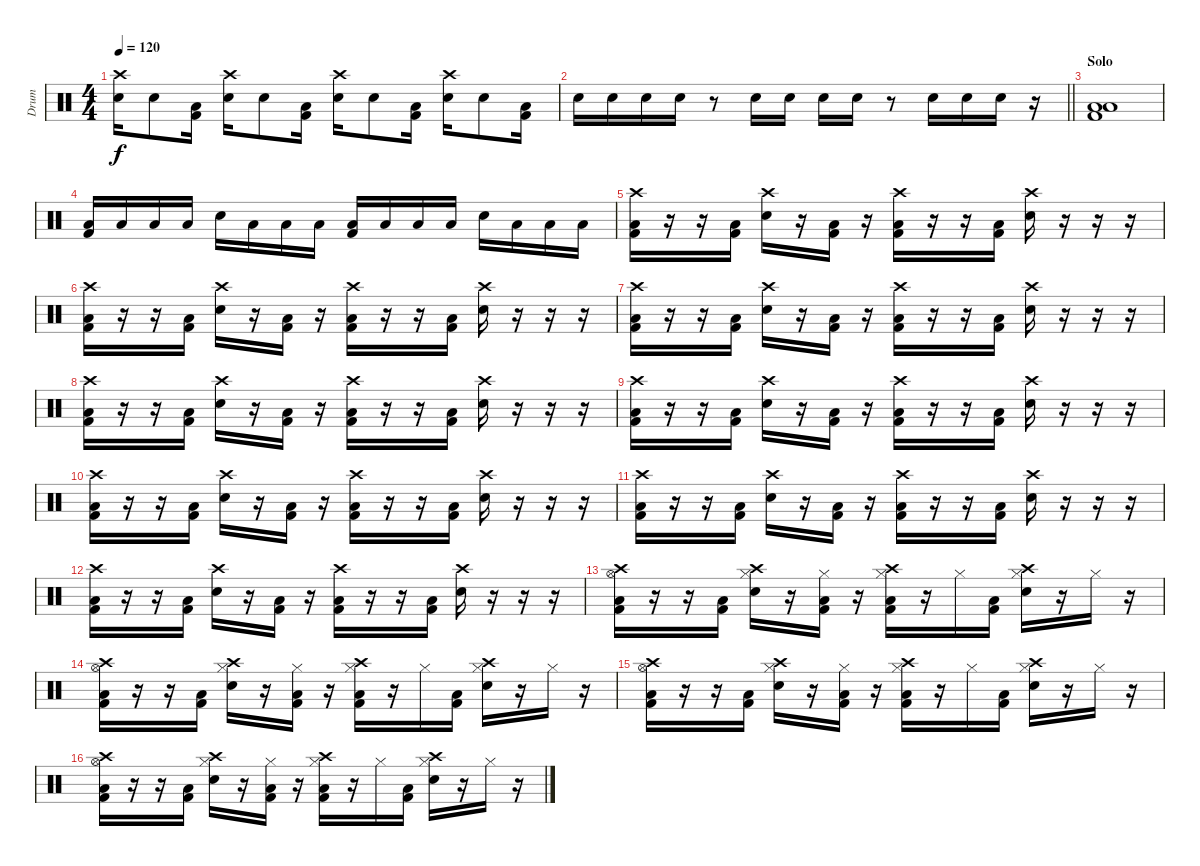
\track ("Drum" "Drum") {instrument percussion}
\staff {score}
\articulation defaults
\ts (4 4)
\tempo 120
\clef neutral
\ks c
("Crash high (hit)" "Snare (hit) 2").16{dy f} "Snare (hit) 2".8 ("Low Floor Tom (hit)" "Kick (hit) 2").16 ("Crash high (hit)" "Snare (hit) 2").16 "Snare (hit) 2".8 ("Low Floor Tom (hit)" "Kick (hit) 2").16 ("Crash high (hit)" "Snare (hit) 2").16 "Snare (hit) 2".8 ("Low Floor Tom (hit)" "Kick (hit) 2").16 ("Crash high (hit)" "Snare (hit) 2").16 "Snare (hit) 2".8 ("Low Floor Tom (hit)" "Kick (hit) 2").16 |
\barLineRight lightlight "Snare (hit) 2".16 "Snare (hit) 2".16 "Snare (hit) 2".16 "Snare (hit) 2".16
r.8 "Snare (hit) 2".16 "Snare (hit) 2".16 "Snare (hit) 2".16 "Snare (hit) 2".16 r.8 "Snare (hit) 2".16 "Snare (hit) 2".16 "Snare (hit) 2".16 r.16 |
\section ("" "Solo")
("Low Floor Tom (hit)" "Low Floor Tom (hit)" "Kick (hit) 2").1 |
("Low Floor Tom (hit)" "Kick (hit) 2").16 "Low Floor Tom (hit)".16 "Low Floor Tom (hit)".16 "Low Floor Tom (hit)".16 "Snare (hit) 2".16 "Low Floor Tom (hit)".16 "Low Floor Tom (hit)".16 "Low Floor Tom (hit)".16 ("Low Floor Tom (hit)" "Kick (hit) 2").16 "Low Floor Tom (hit)".16 "Low Floor Tom (hit)".16 "Low Floor Tom (hit)".16 "Snare (hit) 2".16 "Low Floor Tom (hit)".16 "Low Floor Tom (hit)".16 "Low Floor Tom (hit)".16 |
("Crash high (hit)" "Low Floor Tom (hit)" "Kick (hit) 2").16 r.16 r.16 ("Low Floor Tom (hit)" "Kick (hit) 2").16 ("Crash high (hit)" "Snare (hit) 2").16 r.16 ("Low Floor Tom (hit)" "Kick (hit) 2").16 r.16 ("Crash high (hit)" "Low Floor Tom (hit)" "Kick (hit) 2").16 r.16 r.16 ("Low Floor Tom (hit)" "Kick (hit) 2").16 ("Crash high (hit)" "Snare (hit) 2").16 r.16 r.16 r.16 |
("Crash high (hit)" "Low Floor Tom (hit)" "Kick (hit) 2").16 r.16 r.16 ("Low Floor Tom (hit)" "Kick (hit) 2").16 ("Crash high (hit)" "Snare (hit) 2").16 r.16 ("Low Floor Tom (hit)" "Kick (hit) 2").16 r.16 ("Crash high (hit)" "Low Floor Tom (hit)" "Kick (hit) 2").16 r.16 r.16 ("Low Floor Tom (hit)" "Kick (hit) 2").16 ("Crash high (hit)" "Snare (hit) 2").16 r.16 r.16 r.16 |
("Crash high (hit)" "Low Floor Tom (hit)" "Kick (hit) 2").16 r.16 r.16 ("Low Floor Tom (hit)" "Kick (hit) 2").16 ("Crash high (hit)" "Snare (hit) 2").16 r.16 ("Low Floor Tom (hit)" "Kick (hit) 2").16 r.16 ("Crash high (hit)" "Low Floor Tom (hit)" "Kick (hit) 2").16 r.16 r.16 ("Low Floor Tom (hit)" "Kick (hit) 2").16 ("Crash high (hit)" "Snare (hit) 2").16 r.16 r.16 r.16 |
("Crash high (hit)" "Low Floor Tom (hit)" "Kick (hit) 2").16 r.16 r.16 ("Low Floor Tom (hit)" "Kick (hit) 2").16 ("Crash high (hit)" "Snare (hit) 2").16 r.16 ("Low Floor Tom (hit)" "Kick (hit) 2").16 r.16 ("Crash high (hit)" "Low Floor Tom (hit)" "Kick (hit) 2").16 r.16 r.16 ("Low Floor Tom (hit)" "Kick (hit) 2").16 ("Crash high (hit)" "Snare (hit) 2").16 r.16 r.16 r.16 |
("Crash high (hit)" "Low Floor Tom (hit)" "Kick (hit) 2").16 r.16 r.16 ("Low Floor Tom (hit)" "Kick (hit) 2").16 ("Crash high (hit)" "Snare (hit) 2").16 r.16 ("Low Floor Tom (hit)" "Kick (hit) 2").16 r.16 ("Crash high (hit)" "Low Floor Tom (hit)" "Kick (hit) 2").16 r.16 r.16 ("Low Floor Tom (hit)" "Kick (hit) 2").16 ("Crash high (hit)" "Snare (hit) 2").16 r.16 r.16 r.16 |
("Crash high (hit)" "Low Floor Tom (hit)" "Kick (hit) 2").16 r.16 r.16 ("Low Floor Tom (hit)" "Kick (hit) 2").16 ("Crash high (hit)" "Snare (hit) 2").16 r.16 ("Low Floor Tom (hit)" "Kick (hit) 2").16 r.16 ("Crash high (hit)" "Low Floor Tom (hit)" "Kick (hit) 2").16 r.16 r.16 ("Low Floor Tom (hit)" "Kick (hit) 2").16 ("Crash high (hit)" "Snare (hit) 2").16 r.16 r.16 r.16 |
("Crash high (hit)" "Low Floor Tom (hit)" "Kick (hit) 2").16 r.16 r.16 ("Low Floor Tom (hit)" "Kick (hit) 2").16 ("Crash high (hit)" "Snare (hit) 2").16 r.16 ("Low Floor Tom (hit)" "Kick (hit) 2").16 r.16 ("Crash high (hit)" "Low Floor Tom (hit)" "Kick (hit) 2").16 r.16 r.16 ("Low Floor Tom (hit)" "Kick (hit) 2").16 ("Crash high (hit)" "Snare (hit) 2").16 r.16 r.16 r.16 |
("Crash high (hit)" "Low Floor Tom (hit)" "Kick (hit) 2").16 r.16 r.16 ("Low Floor Tom (hit)" "Kick (hit) 2").16 ("Crash high (hit)" "Snare (hit) 2").16 r.16 ("Low Floor Tom (hit)" "Kick (hit) 2").16 r.16 ("Crash high (hit)" "Low Floor Tom (hit)" "Kick (hit) 2").16 r.16 r.16 ("Low Floor Tom (hit)" "Kick (hit) 2").16 ("Crash high (hit)" "Snare (hit) 2").16 r.16 r.16 r.16 |
("Crash high (hit)" "Hi-Hat (open)" "Low Floor Tom (hit)" "Kick (hit) 2").16 r.16 r.16 ("Low Floor Tom (hit)" "Kick (hit) 2").16 ("Crash high (hit)" "Hi-Hat (closed)" "Snare (hit) 2").16 r.16 ("Hi-Hat (closed)" "Low Floor Tom (hit)" "Kick (hit) 2").16 r.16 ("Crash high (hit)" "Hi-Hat (closed)" "Low Floor Tom (hit)" "Kick (hit) 2").16 r.16 "Hi-Hat (closed)".16 ("Low Floor Tom (hit)" "Kick (hit) 2").16 ("Crash high (hit)" "Hi-Hat (closed)" "Snare (hit) 2").16 r.16 "Hi-Hat (closed)".16 r.16 |
("Crash high (hit)" "Hi-Hat (open)" "Low Floor Tom (hit)" "Kick (hit) 2").16 r.16 r.16 ("Low Floor Tom (hit)" "Kick (hit) 2").16 ("Crash high (hit)" "Hi-Hat (closed)" "Snare (hit) 2").16 r.16 ("Hi-Hat (closed)" "Low Floor Tom (hit)" "Kick (hit) 2").16 r.16 ("Crash high (hit)" "Hi-Hat (closed)" "Low Floor Tom (hit)" "Kick (hit) 2").16 r.16 "Hi-Hat (closed)".16 ("Low Floor Tom (hit)" "Kick (hit) 2").16 ("Crash high (hit)" "Hi-Hat (closed)" "Snare (hit) 2").16 r.16 "Hi-Hat (closed)".16 r.16 |
("Crash high (hit)" "Hi-Hat (open)" "Low Floor Tom (hit)" "Kick (hit) 2").16 r.16 r.16 ("Low Floor Tom (hit)" "Kick (hit) 2").16 ("Crash high (hit)" "Hi-Hat (closed)" "Snare (hit) 2").16 r.16 ("Hi-Hat (closed)" "Low Floor Tom (hit)" "Kick (hit) 2").16 r.16 ("Crash high (hit)" "Hi-Hat (closed)" "Low Floor Tom (hit)" "Kick (hit) 2").16 r.16 "Hi-Hat (closed)".16 ("Low Floor Tom (hit)" "Kick (hit) 2").16 ("Crash high (hit)" "Hi-Hat (closed)" "Snare (hit) 2").16 r.16 "Hi-Hat (closed)".16 r.16 |
("Crash high (hit)" "Hi-Hat (open)" "Low Floor Tom (hit)" "Kick (hit) 2").16 r.16 r.16 ("Low Floor Tom (hit)" "Kick (hit) 2").16 ("Crash high (hit)" "Hi-Hat (closed)" "Snare (hit) 2").16 r.16 ("Hi-Hat (closed)" "Low Floor Tom (hit)" "Kick (hit) 2").16 r.16 ("Crash high (hit)" "Hi-Hat (closed)" "Low Floor Tom (hit)" "Kick (hit) 2").16 r.16 "Hi-Hat (closed)".16 ("Low Floor Tom (hit)" "Kick (hit) 2").16 ("Crash high (hit)" "Hi-Hat (closed)" "Snare (hit) 2").16 r.16 "Hi-Hat (closed)".16 r.16
